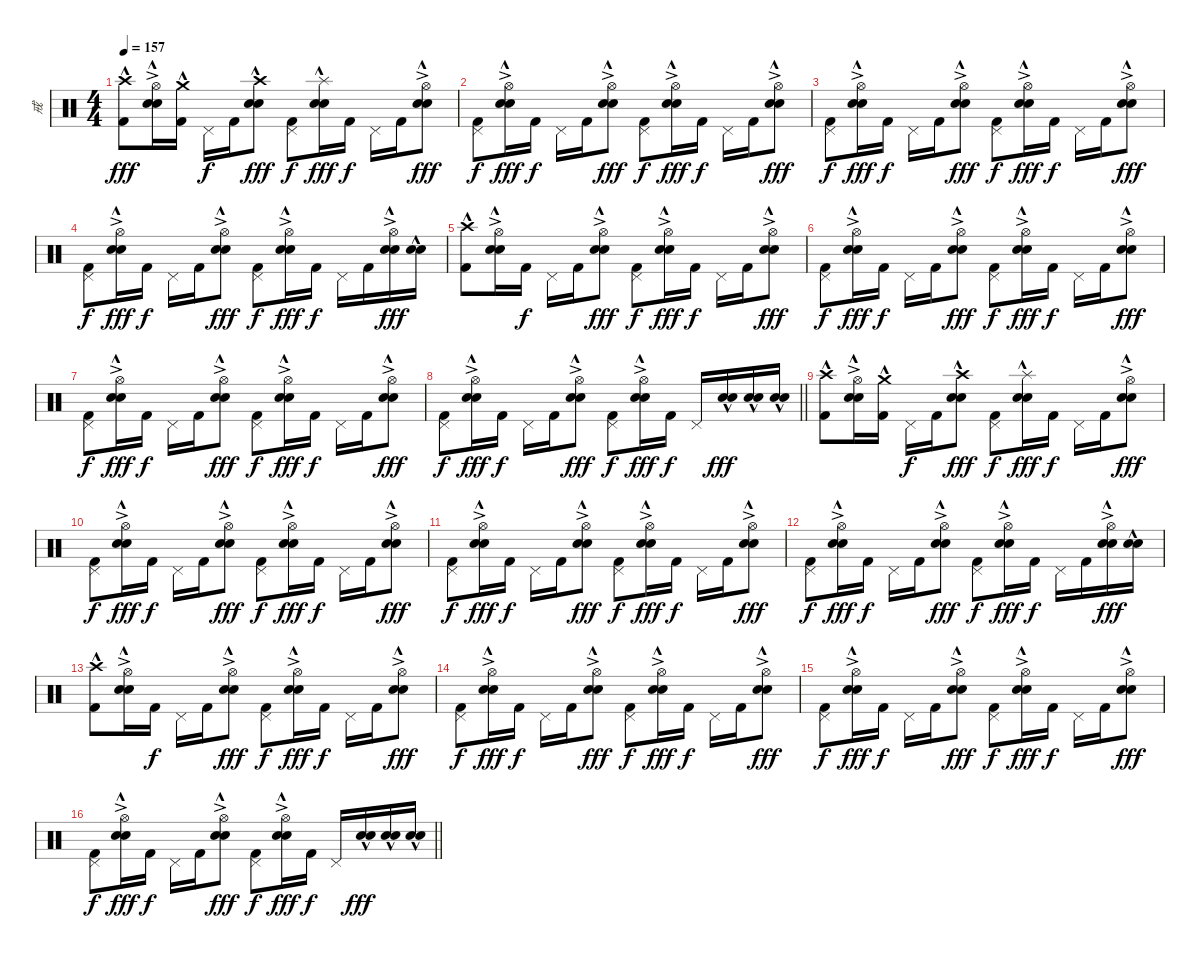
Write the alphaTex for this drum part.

\track ("戒" "戒") {instrument percussion}
\staff {score}
\articulation defaults
\ts (4 4)
\section ("" "")
\tempo 157
\clef neutral
\ks c
("Crash high (hit)"{hac} "Kick (hit) 2").8{dy fff} ("Hi-Hat (open)"{ac} "Electric Snare (hit)"{hac} "Snare (hit) 2").16 ("Crash medium (hit)"{hac} "Kick (hit) 2").16 "Pedal Hi-Hat (hit)".16{dy f} "Kick (hit) 2".16 ("Crash high (hit)"{hac} "Electric Snare (hit)"{hac} "Snare (hit) 2").8{dy fff} ("Pedal Hi-Hat (hit)" "Kick (hit) 2").8{dy f} ("Splash (hit)"{hac} "Electric Snare (hit)"{hac} "Snare (hit) 2").16{dy fff} "Kick (hit) 2".16{dy f} "Pedal Hi-Hat (hit)".16 "Kick (hit) 2".16 ("Hi-Hat (open)"{ac} "Electric Snare (hit)"{hac} "Snare (hit) 2").8{dy fff} |
("Pedal Hi-Hat (hit)" "Kick (hit) 2").8{dy f} ("Hi-Hat (open)"{ac} "Electric Snare (hit)"{hac} "Snare (hit) 2").16{dy fff} "Kick (hit) 2".16{dy f} "Pedal Hi-Hat (hit)".16 "Kick (hit) 2".16 ("Hi-Hat (open)"{ac} "Electric Snare (hit)"{hac} "Snare (hit) 2").8{dy fff} ("Pedal Hi-Hat (hit)" "Kick (hit) 2").8{dy f} ("Hi-Hat (open)"{ac} "Electric Snare (hit)"{hac} "Snare (hit) 2").16{dy fff} "Kick (hit) 2".16{dy f} "Pedal Hi-Hat (hit)".16 "Kick (hit) 2".16 ("Hi-Hat (open)"{ac} "Electric Snare (hit)"{hac} "Snare (hit) 2").8{dy fff} |
("Pedal Hi-Hat (hit)" "Kick (hit) 2").8{dy f} ("Hi-Hat (open)"{ac} "Electric Snare (hit)"{hac} "Snare (hit) 2").16{dy fff} "Kick (hit) 2".16{dy f} "Pedal Hi-Hat (hit)".16 "Kick (hit) 2".16 ("Hi-Hat (open)"{ac} "Electric Snare (hit)"{hac} "Snare (hit) 2").8{dy fff} ("Pedal Hi-Hat (hit)" "Kick (hit) 2").8{dy f} ("Hi-Hat (open)"{ac} "Electric Snare (hit)"{hac} "Snare (hit) 2").16{dy fff} "Kick (hit) 2".16{dy f} "Pedal Hi-Hat (hit)".16 "Kick (hit) 2".16 ("Hi-Hat (open)"{ac} "Electric Snare (hit)"{hac} "Snare (hit) 2").8{dy fff} |
("Pedal Hi-Hat (hit)" "Kick (hit) 2").8{dy f} ("Hi-Hat (open)"{ac} "Electric Snare (hit)"{hac} "Snare (hit) 2").16{dy fff} "Kick (hit) 2".16{dy f} "Pedal Hi-Hat (hit)".16 "Kick (hit) 2".16 ("Hi-Hat (open)"{ac} "Electric Snare (hit)"{hac} "Snare (hit) 2").8{dy fff} ("Pedal Hi-Hat (hit)" "Kick (hit) 2").8{dy f} ("Hi-Hat (open)"{ac} "Electric Snare (hit)"{hac} "Snare (hit) 2").16{dy fff} "Kick (hit) 2".16{dy f} "Pedal Hi-Hat (hit)".16 "Kick (hit) 2".16 ("Hi-Hat (open)"{ac} "Electric Snare (hit)"{hac} "Snare (hit) 2").16{dy fff} ("Electric Snare (hit)"{hac} "Snare (hit) 2").16 |
("Crash high (hit)"{hac} "Kick (hit) 2").8 ("Hi-Hat (open)"{ac} "Electric Snare (hit)"{hac} "Snare (hit) 2").16 "Kick (hit) 2".16{dy f} "Pedal Hi-Hat (hit)".16 "Kick (hit) 2".16 ("Hi-Hat (open)"{ac} "Electric Snare (hit)"{hac} "Snare (hit) 2").8{dy fff} ("Pedal Hi-Hat (hit)" "Kick (hit) 2").8{dy f} ("Hi-Hat (open)"{ac} "Electric Snare (hit)"{hac} "Snare (hit) 2").16{dy fff} "Kick (hit) 2".16{dy f} "Pedal Hi-Hat (hit)".16 "Kick (hit) 2".16 ("Hi-Hat (open)"{ac} "Electric Snare (hit)"{hac} "Snare (hit) 2").8{dy fff} |
("Pedal Hi-Hat (hit)" "Kick (hit) 2").8{dy f} ("Hi-Hat (open)"{ac} "Electric Snare (hit)"{hac} "Snare (hit) 2").16{dy fff} "Kick (hit) 2".16{dy f} "Pedal Hi-Hat (hit)".16 "Kick (hit) 2".16 ("Hi-Hat (open)"{ac} "Electric Snare (hit)"{hac} "Snare (hit) 2").8{dy fff} ("Pedal Hi-Hat (hit)" "Kick (hit) 2").8{dy f} ("Hi-Hat (open)"{ac} "Electric Snare (hit)"{hac} "Snare (hit) 2").16{dy fff} "Kick (hit) 2".16{dy f} "Pedal Hi-Hat (hit)".16 "Kick (hit) 2".16 ("Hi-Hat (open)"{ac} "Electric Snare (hit)"{hac} "Snare (hit) 2").8{dy fff} |
("Pedal Hi-Hat (hit)" "Kick (hit) 2").8{dy f} ("Hi-Hat (open)"{ac} "Electric Snare (hit)"{hac} "Snare (hit) 2").16{dy fff} "Kick (hit) 2".16{dy f} "Pedal Hi-Hat (hit)".16 "Kick (hit) 2".16 ("Hi-Hat (open)"{ac} "Electric Snare (hit)"{hac} "Snare (hit) 2").8{dy fff} ("Pedal Hi-Hat (hit)" "Kick (hit) 2").8{dy f} ("Hi-Hat (open)"{ac} "Electric Snare (hit)"{hac} "Snare (hit) 2").16{dy fff} "Kick (hit) 2".16{dy f} "Pedal Hi-Hat (hit)".16 "Kick (hit) 2".16 ("Hi-Hat (open)"{ac} "Electric Snare (hit)"{hac} "Snare (hit) 2").8{dy fff} |
\barLineRight lightlight
("Pedal Hi-Hat (hit)" "Kick (hit) 2").8{dy f} ("Hi-Hat (open)"{ac} "Electric Snare (hit)"{hac} "Snare (hit) 2").16{dy fff} "Kick (hit) 2".16{dy f} "Pedal Hi-Hat (hit)".16 "Kick (hit) 2".16 ("Hi-Hat (open)"{ac} "Electric Snare (hit)"{hac} "Snare (hit) 2").8{dy fff} ("Pedal Hi-Hat (hit)" "Kick (hit) 2").8{dy f} ("Hi-Hat (open)"{ac} "Electric Snare (hit)"{hac} "Snare (hit) 2").16{dy fff} "Kick (hit) 2".16{dy f} "Pedal Hi-Hat (hit)".16 ("Electric Snare (hit)"{hac} "Snare (hit) 2").16{dy fff} ("Electric Snare (hit)"{hac} "Snare (hit) 2").16 ("Electric Snare (hit)"{hac} "Snare (hit) 2").16 |
\section ("" "")
("Crash high (hit)"{hac} "Kick (hit) 2").8 ("Hi-Hat (open)"{ac} "Electric Snare (hit)"{hac} "Snare (hit) 2").16 ("Crash medium (hit)"{hac} "Kick (hit) 2").16 "Pedal Hi-Hat (hit)".16{dy f} "Kick (hit) 2".16 ("Crash high (hit)"{hac} "Electric Snare (hit)"{hac} "Snare (hit) 2").8{dy fff} ("Pedal Hi-Hat (hit)" "Kick (hit) 2").8{dy f} ("Splash (hit)"{hac} "Electric Snare (hit)"{hac} "Snare (hit) 2").16{dy fff} "Kick (hit) 2".16{dy f} "Pedal Hi-Hat (hit)".16 "Kick (hit) 2".16 ("Hi-Hat (open)"{ac} "Electric Snare (hit)"{hac} "Snare (hit) 2").8{dy fff} |
("Pedal Hi-Hat (hit)" "Kick (hit) 2").8{dy f} ("Hi-Hat (open)"{ac} "Electric Snare (hit)"{hac} "Snare (hit) 2").16{dy fff} "Kick (hit) 2".16{dy f} "Pedal Hi-Hat (hit)".16 "Kick (hit) 2".16 ("Hi-Hat (open)"{ac} "Electric Snare (hit)"{hac} "Snare (hit) 2").8{dy fff} ("Pedal Hi-Hat (hit)" "Kick (hit) 2").8{dy f} ("Hi-Hat (open)"{ac} "Electric Snare (hit)"{hac} "Snare (hit) 2").16{dy fff} "Kick (hit) 2".16{dy f} "Pedal Hi-Hat (hit)".16 "Kick (hit) 2".16 ("Hi-Hat (open)"{ac} "Electric Snare (hit)"{hac} "Snare (hit) 2").8{dy fff} |
("Pedal Hi-Hat (hit)" "Kick (hit) 2").8{dy f} ("Hi-Hat (open)"{ac} "Electric Snare (hit)"{hac} "Snare (hit) 2").16{dy fff} "Kick (hit) 2".16{dy f} "Pedal Hi-Hat (hit)".16 "Kick (hit) 2".16 ("Hi-Hat (open)"{ac} "Electric Snare (hit)"{hac} "Snare (hit) 2").8{dy fff} ("Pedal Hi-Hat (hit)" "Kick (hit) 2").8{dy f} ("Hi-Hat (open)"{ac} "Electric Snare (hit)"{hac} "Snare (hit) 2").16{dy fff} "Kick (hit) 2".16{dy f} "Pedal Hi-Hat (hit)".16 "Kick (hit) 2".16 ("Hi-Hat (open)"{ac} "Electric Snare (hit)"{hac} "Snare (hit) 2").8{dy fff} |
("Pedal Hi-Hat (hit)" "Kick (hit) 2").8{dy f} ("Hi-Hat (open)"{ac} "Electric Snare (hit)"{hac} "Snare (hit) 2").16{dy fff} "Kick (hit) 2".16{dy f} "Pedal Hi-Hat (hit)".16 "Kick (hit) 2".16 ("Hi-Hat (open)"{ac} "Electric Snare (hit)"{hac} "Snare (hit) 2").8{dy fff} ("Pedal Hi-Hat (hit)" "Kick (hit) 2").8{dy f} ("Hi-Hat (open)"{ac} "Electric Snare (hit)"{hac} "Snare (hit) 2").16{dy fff} "Kick (hit) 2".16{dy f} "Pedal Hi-Hat (hit)".16 "Kick (hit) 2".16 ("Hi-Hat (open)"{ac} "Electric Snare (hit)"{hac} "Snare (hit) 2").16{dy fff} ("Electric Snare (hit)"{hac} "Snare (hit) 2").16 |
("Crash high (hit)"{hac} "Kick (hit) 2").8 ("Hi-Hat (open)"{ac} "Electric Snare (hit)"{hac} "Snare (hit) 2").16 "Kick (hit) 2".16{dy f} "Pedal Hi-Hat (hit)".16 "Kick (hit) 2".16 ("Hi-Hat (open)"{ac} "Electric Snare (hit)"{hac} "Snare (hit) 2").8{dy fff} ("Pedal Hi-Hat (hit)" "Kick (hit) 2").8{dy f} ("Hi-Hat (open)"{ac} "Electric Snare (hit)"{hac} "Snare (hit) 2").16{dy fff} "Kick (hit) 2".16{dy f} "Pedal Hi-Hat (hit)".16 "Kick (hit) 2".16 ("Hi-Hat (open)"{ac} "Electric Snare (hit)"{hac} "Snare (hit) 2").8{dy fff} |
("Pedal Hi-Hat (hit)" "Kick (hit) 2").8{dy f} ("Hi-Hat (open)"{ac} "Electric Snare (hit)"{hac} "Snare (hit) 2").16{dy fff} "Kick (hit) 2".16{dy f} "Pedal Hi-Hat (hit)".16 "Kick (hit) 2".16 ("Hi-Hat (open)"{ac} "Electric Snare (hit)"{hac} "Snare (hit) 2").8{dy fff} ("Pedal Hi-Hat (hit)" "Kick (hit) 2").8{dy f} ("Hi-Hat (open)"{ac} "Electric Snare (hit)"{hac} "Snare (hit) 2").16{dy fff} "Kick (hit) 2".16{dy f} "Pedal Hi-Hat (hit)".16 "Kick (hit) 2".16 ("Hi-Hat (open)"{ac} "Electric Snare (hit)"{hac} "Snare (hit) 2").8{dy fff} |
("Pedal Hi-Hat (hit)" "Kick (hit) 2").8{dy f} ("Hi-Hat (open)"{ac} "Electric Snare (hit)"{hac} "Snare (hit) 2").16{dy fff} "Kick (hit) 2".16{dy f} "Pedal Hi-Hat (hit)".16 "Kick (hit) 2".16 ("Hi-Hat (open)"{ac} "Electric Snare (hit)"{hac} "Snare (hit) 2").8{dy fff} ("Pedal Hi-Hat (hit)" "Kick (hit) 2").8{dy f} ("Hi-Hat (open)"{ac} "Electric Snare (hit)"{hac} "Snare (hit) 2").16{dy fff} "Kick (hit) 2".16{dy f} "Pedal Hi-Hat (hit)".16 "Kick (hit) 2".16 ("Hi-Hat (open)"{ac} "Electric Snare (hit)"{hac} "Snare (hit) 2").8{dy fff} |
\barLineRight lightlight
("Pedal Hi-Hat (hit)" "Kick (hit) 2").8{dy f} ("Hi-Hat (open)"{ac} "Electric Snare (hit)"{hac} "Snare (hit) 2").16{dy fff} "Kick (hit) 2".16{dy f} "Pedal Hi-Hat (hit)".16 "Kick (hit) 2".16 ("Hi-Hat (open)"{ac} "Electric Snare (hit)"{hac} "Snare (hit) 2").8{dy fff} ("Pedal Hi-Hat (hit)" "Kick (hit) 2").8{dy f} ("Hi-Hat (open)"{ac} "Electric Snare (hit)"{hac} "Snare (hit) 2").16{dy fff} "Kick (hit) 2".16{dy f} "Pedal Hi-Hat (hit)".16 ("Electric Snare (hit)"{hac} "Snare (hit) 2").16{dy fff} ("Electric Snare (hit)"{hac} "Snare (hit) 2").16 ("Electric Snare (hit)"{hac} "Snare (hit) 2").16
